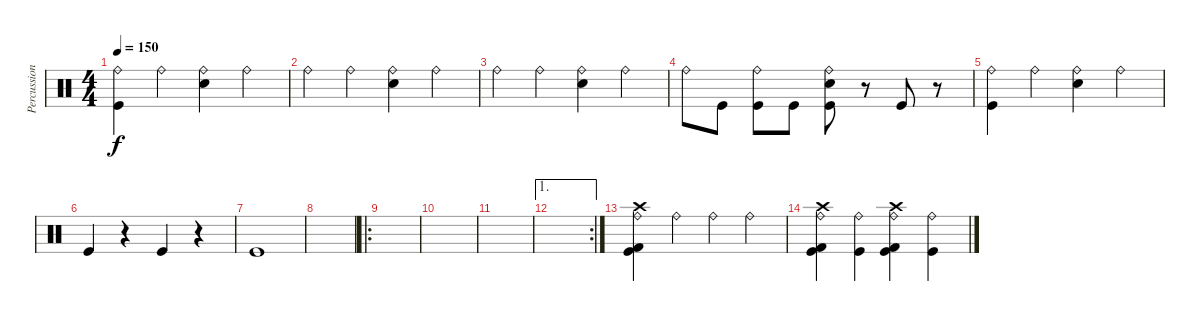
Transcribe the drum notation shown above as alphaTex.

\track ("Percussion" "Percussion") {instrument percussion}
\staff {score}
\articulation defaults
\ts (4 4)
\tempo 150
\clef neutral
\ks c
("Ride (bell)" "Kick (hit)").4{dy f} "Ride (bell)".4 ("Ride (bell)" "Snare (hit) 2").4 "Ride (bell)".4 |
"Ride (bell)".4 "Ride (bell)".4 ("Ride (bell)" "Snare (hit) 2").4 "Ride (bell)".4 |
"Ride (bell)".4 "Ride (bell)".4 ("Ride (bell)" "Snare (hit) 2").4 "Ride (bell)".4 |
"Ride (bell)".8 "Kick (hit)".8 ("Ride (bell)" "Kick (hit)").8 "Kick (hit)".8 ("Kick (hit)" "Ride (bell)" "Snare (hit) 2").8 r.8 "Kick (hit)".8 r.8 |
("Ride (bell)" "Kick (hit)").4 "Ride (bell)".4 ("Ride (bell)" "Snare (hit) 2").4 "Ride (bell)".4 |
"Kick (hit)".4 r.4 "Kick (hit)".4 r.4 |
"Kick (hit)".1 |
|
\ro
|
|
|
\ae 1
\rc 2
|
("Ride (bell)" "Crash high (hit)" "Kick (hit)" "Kick (hit) 2").4 "Ride (bell)".4 "Ride (bell)".4 "Ride (bell)".4 |
("Ride (bell)" "Crash high (hit)" "Kick (hit)" "Kick (hit) 2").4 ("Ride (bell)" "Kick (hit)").4 ("Ride (bell)" "Crash high (hit)" "Kick (hit)" "Kick (hit) 2").4 ("Ride (bell)" "Kick (hit)").4
